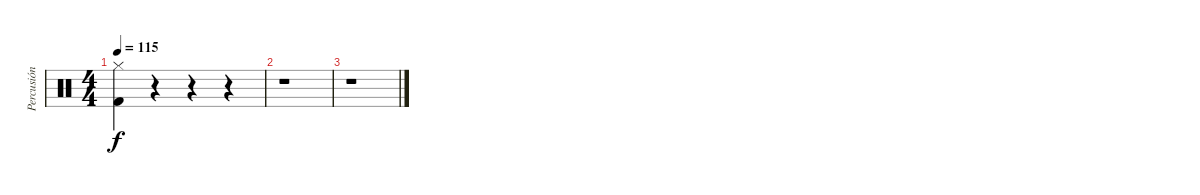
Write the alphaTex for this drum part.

\track ("Percusión" "Percusión") {instrument percussion}
\staff {score}
\articulation defaults
\ts (4 4)
\tempo 115
\clef neutral
\ks c
("Hi-Hat (closed)" "Kick (hit) 2").4{dy f} r.4 r.4 r.4 |
r.1 |
r.1
